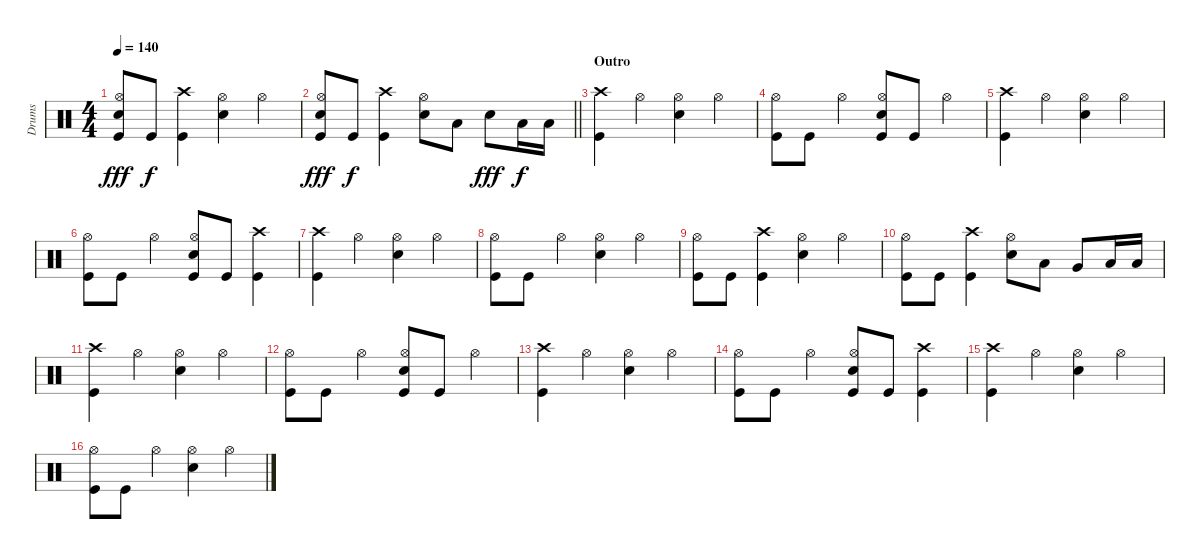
\track ("Drums" "Drums") {instrument percussion}
\staff {score}
\articulation defaults
\ts (4 4)
\tempo 140
\clef neutral
\ks c
("Kick (hit)" "Hi-Hat (open)" "Snare (hit) 2").8{dy fff} "Kick (hit)".8{dy f} ("Kick (hit)" "Crash high (hit)").4 ("Snare (hit) 2" "Hi-Hat (open)").4 "Hi-Hat (open)".4 |
\barLineRight lightlight
("Kick (hit)" "Hi-Hat (open)" "Snare (hit) 2").8{dy fff} "Kick (hit)".8{dy f} ("Kick (hit)" "Crash high (hit)").4 ("Snare (hit) 2" "Hi-Hat (open)").8 "Low Tom (hit)".8 "Snare (hit) 2".8{dy fff} "Low Floor Tom (hit)".16{dy f} "Low Floor Tom (hit)".16 |
\section ("" "Outro")
("Crash high (hit)" "Kick (hit)").4 "Hi-Hat (open)".4 ("Hi-Hat (open)" "Snare (hit) 2").4 "Hi-Hat (open)".4 |
("Hi-Hat (open)" "Kick (hit)").8 "Kick (hit)".8 "Hi-Hat (open)".4 ("Snare (hit) 2" "Kick (hit)" "Hi-Hat (open)").8 "Kick (hit)".8 "Hi-Hat (open)".4 |
("Crash high (hit)" "Kick (hit)").4 "Hi-Hat (open)".4 ("Hi-Hat (open)" "Snare (hit) 2").4 "Hi-Hat (open)".4 |
("Hi-Hat (open)" "Kick (hit)").8 "Kick (hit)".8 "Hi-Hat (open)".4 ("Snare (hit) 2" "Kick (hit)" "Hi-Hat (open)").8 "Kick (hit)".8 ("Crash high (hit)" "Kick (hit)").4 |
("Crash high (hit)" "Kick (hit)").4 "Hi-Hat (open)".4 ("Hi-Hat (open)" "Snare (hit) 2").4 "Hi-Hat (open)".4 |
("Hi-Hat (open)" "Kick (hit)").8 "Kick (hit)".8 "Hi-Hat (open)".4 ("Snare (hit) 2" "Hi-Hat (open)").4 "Hi-Hat (open)".4 |
("Kick (hit)" "Hi-Hat (open)").8 "Kick (hit)".8 ("Kick (hit)" "Crash high (hit)").4 ("Snare (hit) 2" "Hi-Hat (open)").4 "Hi-Hat (open)".4 |
("Kick (hit)" "Hi-Hat (open)").8 "Kick (hit)".8 ("Kick (hit)" "Crash high (hit)").4 ("Snare (hit) 2" "Hi-Hat (open)").8 "Low Tom (hit)".8 "Very Low Tom (hit)".8 "Low Floor Tom (hit)".16 "Low Floor Tom (hit)".16 |
("Crash high (hit)" "Kick (hit)").4 "Hi-Hat (open)".4 ("Hi-Hat (open)" "Snare (hit) 2").4 "Hi-Hat (open)".4 |
("Hi-Hat (open)" "Kick (hit)").8 "Kick (hit)".8 "Hi-Hat (open)".4 ("Snare (hit) 2" "Kick (hit)" "Hi-Hat (open)").8 "Kick (hit)".8 "Hi-Hat (open)".4 |
("Crash high (hit)" "Kick (hit)").4 "Hi-Hat (open)".4 ("Hi-Hat (open)" "Snare (hit) 2").4 "Hi-Hat (open)".4 |
("Hi-Hat (open)" "Kick (hit)").8 "Kick (hit)".8 "Hi-Hat (open)".4 ("Snare (hit) 2" "Kick (hit)" "Hi-Hat (open)").8 "Kick (hit)".8 ("Crash high (hit)" "Kick (hit)").4 |
("Crash high (hit)" "Kick (hit)").4 "Hi-Hat (open)".4 ("Hi-Hat (open)" "Snare (hit) 2").4 "Hi-Hat (open)".4 |
("Hi-Hat (open)" "Kick (hit)").8 "Kick (hit)".8 "Hi-Hat (open)".4 ("Snare (hit) 2" "Hi-Hat (open)").4 "Hi-Hat (open)".4
